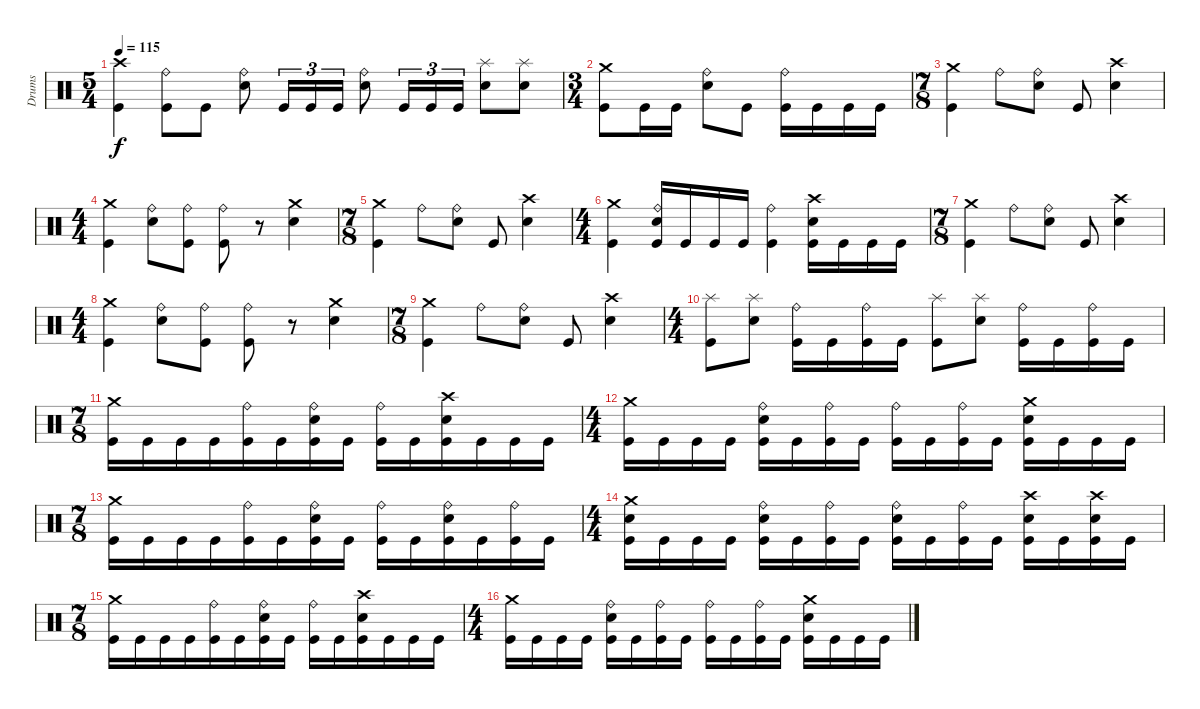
\track ("Drums" "Drums") {instrument percussion}
\staff {score}
\articulation defaults
\ts (5 4)
\tempo 115
\clef neutral
\ks c
("Crash high (hit)" "Kick (hit)").4{dy f} ("Ride (bell)" "Kick (hit)").8 "Kick (hit)".8 ("Ride (bell)" "Electric Snare (hit)").8 "Kick (hit)".16{tu (3 2)} "Kick (hit)".16{tu (3 2)} "Kick (hit)".16{tu (3 2)} ("Ride (bell)" "Electric Snare (hit)").8 "Kick (hit)".16{tu (3 2)} "Kick (hit)".16{tu (3 2)} "Kick (hit)".16{tu (3 2)} ("Splash (hit)" "Electric Snare (hit)").8 ("Splash (hit)" "Electric Snare (hit)").8 |
\ts (3 4)
("Crash medium (hit)" "Kick (hit)").8 "Kick (hit)".16 "Kick (hit)".16 ("Ride (bell)" "Electric Snare (hit)").8 "Kick (hit)".8 ("Ride (bell)" "Kick (hit)").16 "Kick (hit)".16 "Kick (hit)".16 "Kick (hit)".16 |
\ts (7 8)
("Crash medium (hit)" "Kick (hit)").4 "Ride (bell)".8 ("Ride (bell)" "Electric Snare (hit)").8 "Kick (hit)".8 ("Crash high (hit)" "Electric Snare (hit)").4 |
\ts (4 4)
("Crash medium (hit)" "Kick (hit)").4 ("Ride (bell)" "Electric Snare (hit)").8 ("Ride (bell)" "Kick (hit)").8 ("Ride (bell)" "Kick (hit)").8 r.8 ("Crash medium (hit)" "Electric Snare (hit)").4 |
\ts (7 8)
("Crash medium (hit)" "Kick (hit)").4 "Ride (bell)".8 ("Ride (bell)" "Electric Snare (hit)").8 "Kick (hit)".8 ("Crash high (hit)" "Electric Snare (hit)").4 |
\ts (4 4)
("Crash medium (hit)" "Kick (hit)").4 ("Ride (bell)" "Electric Snare (hit)" "Kick (hit)").16 "Kick (hit)".16 "Kick (hit)".16 "Kick (hit)".16 ("Ride (bell)" "Kick (hit)").4 ("Crash high (hit)" "Electric Snare (hit)" "Kick (hit)").16 "Kick (hit)".16 "Kick (hit)".16 "Kick (hit)".16 |
\ts (7 8)
("Crash medium (hit)" "Kick (hit)").4 "Ride (bell)".8 ("Ride (bell)" "Electric Snare (hit)").8 "Kick (hit)".8 ("Crash high (hit)" "Electric Snare (hit)").4 |
\ts (4 4)
("Crash medium (hit)" "Kick (hit)").4 ("Ride (bell)" "Electric Snare (hit)").8 ("Ride (bell)" "Kick (hit)").8 ("Ride (bell)" "Kick (hit)").8 r.8 ("Crash medium (hit)" "Electric Snare (hit)").4 |
\ts (7 8)
("Crash medium (hit)" "Kick (hit)").4 "Ride (bell)".8 ("Ride (bell)" "Electric Snare (hit)").8 "Kick (hit)".8 ("Crash high (hit)" "Electric Snare (hit)").4 |
\ts (4 4)
("Splash (hit)" "Kick (hit)").8 ("Splash (hit)" "Electric Snare (hit)").8 ("Ride (bell)" "Kick (hit)").16 "Kick (hit)".16 ("Ride (bell)" "Kick (hit)").16 "Kick (hit)".16 ("Splash (hit)" "Kick (hit)").8 ("Splash (hit)" "Electric Snare (hit)").8 ("Ride (bell)" "Kick (hit)").16 "Kick (hit)".16 ("Ride (bell)" "Kick (hit)").16 "Kick (hit)".16 |
\ts (7 8)
("Crash medium (hit)" "Kick (hit)").16 "Kick (hit)".16 "Kick (hit)".16 "Kick (hit)".16 ("Ride (bell)" "Kick (hit)").16 "Kick (hit)".16 ("Ride (bell)" "Electric Snare (hit)" "Kick (hit)").16 "Kick (hit)".16 ("Ride (bell)" "Kick (hit)").16 "Kick (hit)".16 ("Crash high (hit)" "Electric Snare (hit)" "Kick (hit)").16 "Kick (hit)".16 "Kick (hit)".16 "Kick (hit)".16 |
\ts (4 4)
("Crash medium (hit)" "Kick (hit)").16 "Kick (hit)".16 "Kick (hit)".16 "Kick (hit)".16 ("Ride (bell)" "Electric Snare (hit)" "Kick (hit)").16 "Kick (hit)".16 ("Ride (bell)" "Kick (hit)").16 "Kick (hit)".16 ("Ride (bell)" "Kick (hit)").16 "Kick (hit)".16 ("Ride (bell)" "Kick (hit)").16 "Kick (hit)".16 ("Crash medium (hit)" "Electric Snare (hit)" "Kick (hit)").16 "Kick (hit)".16 "Kick (hit)".16 "Kick (hit)".16 |
\ts (7 8)
("Crash medium (hit)" "Kick (hit)").16 "Kick (hit)".16 "Kick (hit)".16 "Kick (hit)".16 ("Ride (bell)" "Kick (hit)").16 "Kick (hit)".16 ("Ride (bell)" "Electric Snare (hit)" "Kick (hit)").16 "Kick (hit)".16 ("Ride (bell)" "Kick (hit)").16 "Kick (hit)".16 ("Ride (bell)" "Electric Snare (hit)" "Kick (hit)").16 "Kick (hit)".16 ("Ride (bell)" "Kick (hit)").16 "Kick (hit)".16 |
\ts (4 4)
("Crash medium (hit)" "Electric Snare (hit)" "Kick (hit)").16 "Kick (hit)".16 "Kick (hit)".16 "Kick (hit)".16 ("Ride (bell)" "Electric Snare (hit)" "Kick (hit)").16 "Kick (hit)".16 ("Ride (bell)" "Kick (hit)").16 "Kick (hit)".16 ("Ride (bell)" "Electric Snare (hit)" "Kick (hit)").16 "Kick (hit)".16 ("Ride (bell)" "Kick (hit)").16 "Kick (hit)".16 ("Crash high (hit)" "Electric Snare (hit)" "Kick (hit)").16 "Kick (hit)".16 ("Crash high (hit)" "Electric Snare (hit)" "Kick (hit)").16 "Kick (hit)".16 |
\ts (7 8)
("Crash medium (hit)" "Kick (hit)").16 "Kick (hit)".16 "Kick (hit)".16 "Kick (hit)".16 ("Ride (bell)" "Kick (hit)").16 "Kick (hit)".16 ("Ride (bell)" "Electric Snare (hit)" "Kick (hit)").16 "Kick (hit)".16 ("Ride (bell)" "Kick (hit)").16 "Kick (hit)".16 ("Crash high (hit)" "Electric Snare (hit)" "Kick (hit)").16 "Kick (hit)".16 "Kick (hit)".16 "Kick (hit)".16 |
\ts (4 4)
("Crash medium (hit)" "Kick (hit)").16 "Kick (hit)".16 "Kick (hit)".16 "Kick (hit)".16 ("Ride (bell)" "Electric Snare (hit)" "Kick (hit)").16 "Kick (hit)".16 ("Ride (bell)" "Kick (hit)").16 "Kick (hit)".16 ("Ride (bell)" "Kick (hit)").16 "Kick (hit)".16 ("Ride (bell)" "Kick (hit)").16 "Kick (hit)".16 ("Crash medium (hit)" "Electric Snare (hit)" "Kick (hit)").16 "Kick (hit)".16 "Kick (hit)".16 "Kick (hit)".16
